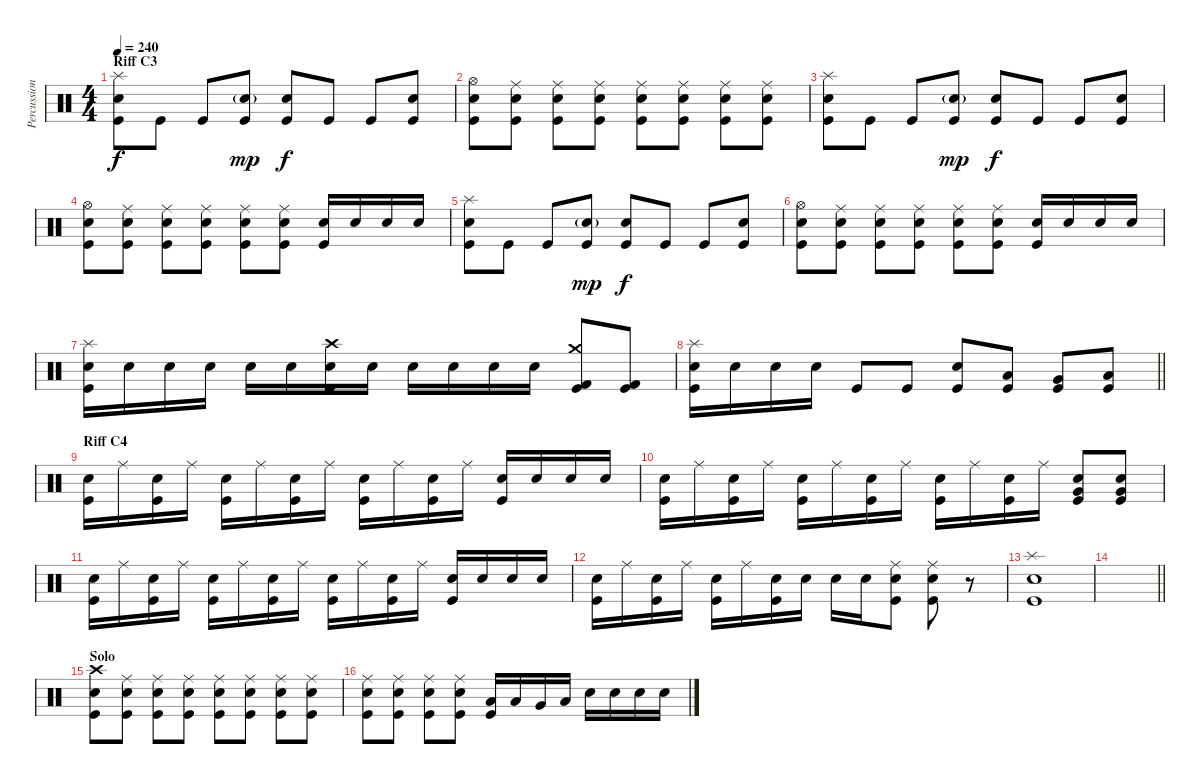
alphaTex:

\track ("Percussions" "Percussion") {instrument percussion}
\staff {score}
\articulation defaults
\ts (4 4)
\section ("" "Riff C3")
\tempo 240
\clef neutral
\ks c
("Splash (hit)" "Electric Snare (hit)" "Kick (hit)").8{dy f} "Kick (hit)".8 "Kick (hit)".8 ("Electric Snare (hit)"{g} "Kick (hit)").8{dy mp} ("Electric Snare (hit)" "Kick (hit)").8{dy f} "Kick (hit)".8 "Kick (hit)".8 ("Electric Snare (hit)" "Kick (hit)").8 |
("Hi-Hat (open)" "Electric Snare (hit)" "Kick (hit)").8 ("Electric Snare (hit)" "Ride (middle)" "Kick (hit)").8 ("Electric Snare (hit)" "Ride (middle)" "Kick (hit)").8 ("Electric Snare (hit)" "Ride (middle)" "Kick (hit)").8 ("Electric Snare (hit)" "Ride (middle)" "Kick (hit)").8 ("Electric Snare (hit)" "Ride (middle)" "Kick (hit)").8 ("Electric Snare (hit)" "Ride (middle)" "Kick (hit)").8 ("Electric Snare (hit)" "Ride (middle)" "Kick (hit)").8 |
("Splash (hit)" "Electric Snare (hit)" "Kick (hit)").8 "Kick (hit)".8 "Kick (hit)".8 ("Electric Snare (hit)"{g} "Kick (hit)").8{dy mp} ("Electric Snare (hit)" "Kick (hit)").8{dy f} "Kick (hit)".8 "Kick (hit)".8 ("Electric Snare (hit)" "Kick (hit)").8 |
("Hi-Hat (open)" "Electric Snare (hit)" "Kick (hit)").8 ("Electric Snare (hit)" "Ride (middle)" "Kick (hit)").8 ("Electric Snare (hit)" "Ride (middle)" "Kick (hit)").8 ("Electric Snare (hit)" "Ride (middle)" "Kick (hit)").8 ("Electric Snare (hit)" "Ride (middle)" "Kick (hit)").8 ("Electric Snare (hit)" "Ride (middle)" "Kick (hit)").8 ("Electric Snare (hit)" "Kick (hit)").16 "Electric Snare (hit)".16 "Electric Snare (hit)".16 "Electric Snare (hit)".16 |
("Splash (hit)" "Electric Snare (hit)" "Kick (hit)").8 "Kick (hit)".8 "Kick (hit)".8 ("Electric Snare (hit)"{g} "Kick (hit)").8{dy mp} ("Electric Snare (hit)" "Kick (hit)").8{dy f} "Kick (hit)".8 "Kick (hit)".8 ("Electric Snare (hit)" "Kick (hit)").8 |
("Hi-Hat (open)" "Electric Snare (hit)" "Kick (hit)").8 ("Electric Snare (hit)" "Ride (middle)" "Kick (hit)").8 ("Electric Snare (hit)" "Ride (middle)" "Kick (hit)").8 ("Electric Snare (hit)" "Ride (middle)" "Kick (hit)").8 ("Electric Snare (hit)" "Ride (middle)" "Kick (hit)").8 ("Electric Snare (hit)" "Ride (middle)" "Kick (hit)").8 ("Electric Snare (hit)" "Kick (hit)").16 "Electric Snare (hit)".16 "Electric Snare (hit)".16 "Electric Snare (hit)".16 |
("Splash (hit)" "Electric Snare (hit)" "Kick (hit)").16 "Electric Snare (hit)".16 "Electric Snare (hit)".16 "Electric Snare (hit)".16 "Electric Snare (hit)".16 "Electric Snare (hit)".16 ("Crash high (hit)" "Electric Snare (hit)" "Kick (hit)").16 "Electric Snare (hit)".16 "Electric Snare (hit)".16 "Electric Snare (hit)".16 "Electric Snare (hit)".16 "Electric Snare (hit)".16 ("Crash medium (hit)" "Kick (hit) 2" "Kick (hit)").8 ("Kick (hit) 2" "Kick (hit)").8 |
\barLineRight lightlight
("Splash (hit)" "Electric Snare (hit)" "Kick (hit)").16 "Electric Snare (hit)".16 "Electric Snare (hit)".16 "Electric Snare (hit)".16 "Kick (hit)".8 "Kick (hit)".8 ("Electric Snare (hit)" "Kick (hit)").8 ("Low Tom (hit)" "Kick (hit)").8 ("Very Low Tom (hit)" "Kick (hit)").8 ("Low Tom (hit)" "Kick (hit)").8 |
\section ("" "Riff C4")
("Electric Snare (hit)" "Kick (hit)").16 "Ride (middle)".16 ("Electric Snare (hit)" "Kick (hit)").16 "Ride (middle)".16 ("Electric Snare (hit)" "Kick (hit)").16 "Ride (middle)".16 ("Electric Snare (hit)" "Kick (hit)").16 "Ride (middle)".16 ("Electric Snare (hit)" "Kick (hit)").16 "Ride (middle)".16 ("Electric Snare (hit)" "Kick (hit)").16 "Ride (middle)".16 ("Electric Snare (hit)" "Kick (hit)").16 "Electric Snare (hit)".16 "Electric Snare (hit)".16 "Electric Snare (hit)".16 |
("Electric Snare (hit)" "Kick (hit)").16 "Ride (middle)".16 ("Electric Snare (hit)" "Kick (hit)").16 "Ride (middle)".16 ("Electric Snare (hit)" "Kick (hit)").16 "Ride (middle)".16 ("Electric Snare (hit)" "Kick (hit)").16 "Ride (middle)".16 ("Electric Snare (hit)" "Kick (hit)").16 "Ride (middle)".16 ("Electric Snare (hit)" "Kick (hit)").16 "Ride (middle)".16 ("Electric Snare (hit)" "Very Low Tom (hit)" "Kick (hit)").8 ("Electric Snare (hit)" "Very Low Tom (hit)" "Kick (hit)").8 |
("Electric Snare (hit)" "Kick (hit)").16 "Ride (middle)".16 ("Electric Snare (hit)" "Kick (hit)").16 "Ride (middle)".16 ("Electric Snare (hit)" "Kick (hit)").16 "Ride (middle)".16 ("Electric Snare (hit)" "Kick (hit)").16 "Ride (middle)".16 ("Electric Snare (hit)" "Kick (hit)").16 "Ride (middle)".16 ("Electric Snare (hit)" "Kick (hit)").16 "Ride (middle)".16 ("Electric Snare (hit)" "Kick (hit)").16 "Electric Snare (hit)".16 "Electric Snare (hit)".16 "Electric Snare (hit)".16 |
("Electric Snare (hit)" "Kick (hit)").16 "Ride (middle)".16 ("Electric Snare (hit)" "Kick (hit)").16 "Ride (middle)".16 ("Electric Snare (hit)" "Kick (hit)").16 "Ride (middle)".16 ("Electric Snare (hit)" "Kick (hit)").16 "Electric Snare (hit)".16 "Electric Snare (hit)".16 "Electric Snare (hit)".16 ("Electric Snare (hit)" "Ride (middle)" "Kick (hit)").8 ("Electric Snare (hit)" "Ride (middle)" "Kick (hit)").8 r.8 |
("Splash (hit)" "Electric Snare (hit)" "Kick (hit)").1 |
\barLineRight lightlight
|
\section ("" "Solo")
("Crash high (hit)" "Electric Snare (hit)" "Kick (hit)").8 ("Electric Snare (hit)" "Ride (middle)" "Kick (hit)").8 ("Electric Snare (hit)" "Ride (middle)" "Kick (hit)").8 ("Electric Snare (hit)" "Ride (middle)" "Kick (hit)").8 ("Electric Snare (hit)" "Ride (middle)" "Kick (hit)").8 ("Electric Snare (hit)" "Ride (middle)" "Kick (hit)").8 ("Electric Snare (hit)" "Ride (middle)" "Kick (hit)").8 ("Electric Snare (hit)" "Ride (middle)" "Kick (hit)").8 |
("Electric Snare (hit)" "Ride (middle)" "Kick (hit)").8 ("Electric Snare (hit)" "Ride (middle)" "Kick (hit)").8 ("Electric Snare (hit)" "Ride (middle)" "Kick (hit)").8 ("Electric Snare (hit)" "Ride (middle)" "Kick (hit)").8 ("Low Tom (hit)" "Kick (hit)").16 "Low Tom (hit)".16 "Very Low Tom (hit)".16 "Low Floor Tom (hit)".16 "Electric Snare (hit)".16 "Electric Snare (hit)".16 "Electric Snare (hit)".16 "Electric Snare (hit)".16
